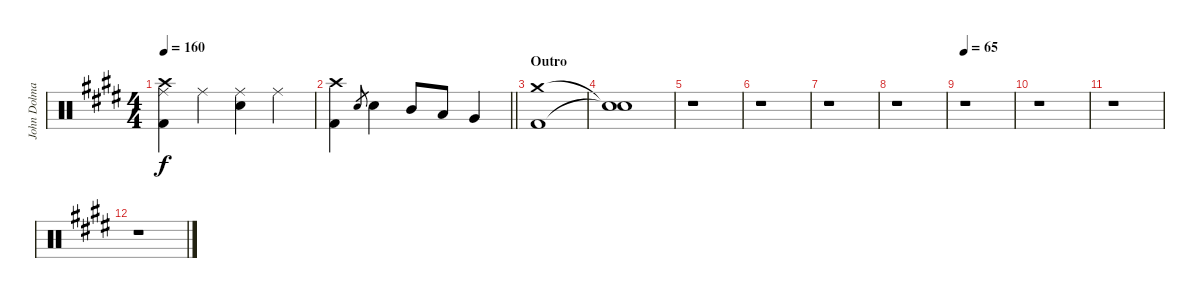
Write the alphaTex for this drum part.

\track ("John Dolmayan [Drums]" "John Dolma") {instrument percussion}
\staff {score}
\articulation defaults
\ts (4 4)
\tempo 160
\clef neutral
\ks c#minor
("Crash high (hit)" "Ride (middle)" "Kick (hit) 2").4{dy f} "Ride (middle)".4 ("Ride (middle)" "Electric Snare (hit)").4 "Ride (middle)".4 |
\barLineRight lightlight
("Crash high (hit)" "Kick (hit) 2").4 "Electric Snare (hit)".8{gr} "Electric Snare (hit)".4 "Mid Tom (hit)".8 "Low Tom (hit)".8 "Very Low Tom (hit)".4 |
\section ("" "Outro")
("Crash medium (hit)" "Kick (hit) 2").1 |
("Snare (hit)"{t} "Snare (hit)"{t}).1 |
r.1 |
r.1 |
r.1 |
r.1 |
\tempo 65
r.1 |
r.1 |
r.1 |
r.1
